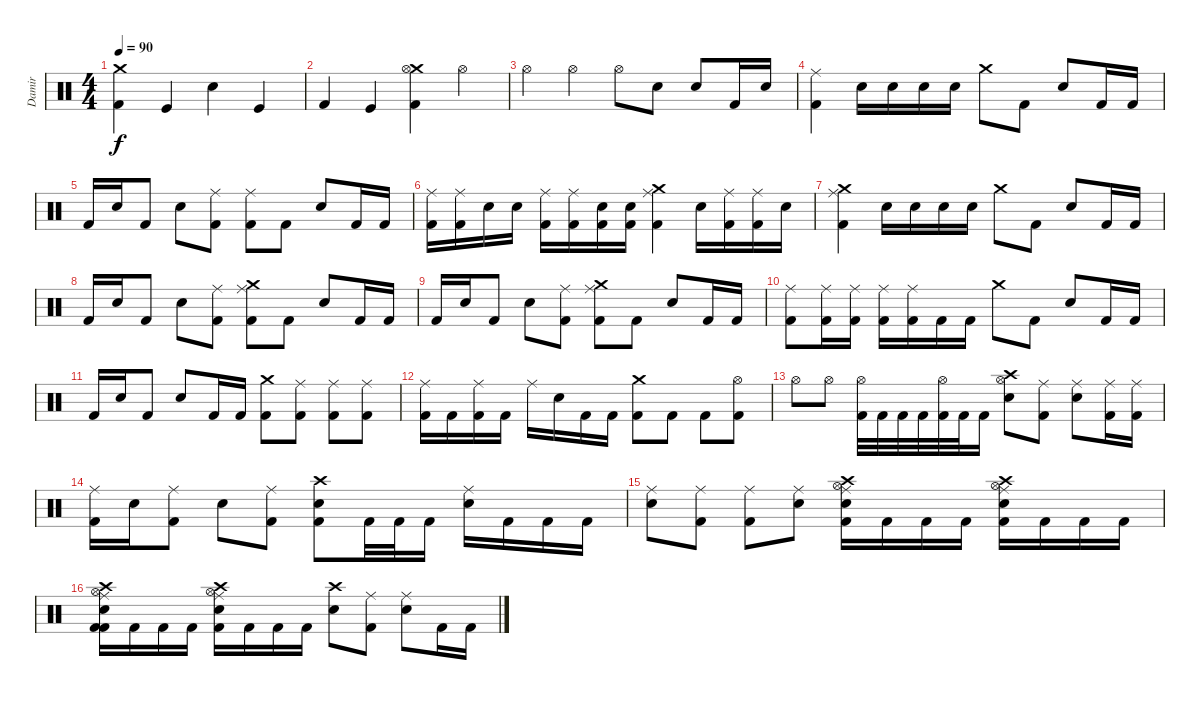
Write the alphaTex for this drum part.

\track ("Damir" "Damir") {instrument percussion}
\staff {score}
\articulation defaults
\ts (4 4)
\tempo 90
\clef neutral
\ks c
("Crash medium (hit)" "Kick (hit) 2").4{dy f} "Kick (hit)".4 "Snare (hit) 2".4 "Kick (hit)".4 |
"Kick (hit) 2".4 "Kick (hit)".4 ("Kick (hit) 2" "Crash medium (hit)" "Hi-Hat (open)").4 "Hi-Hat (open)".4 |
"Hi-Hat (open)".4 "Hi-Hat (open)".4 "Hi-Hat (open)".8 "Snare (hit) 2".8 "Snare (hit) 2".8 "Kick (hit) 2".16 "Snare (hit) 2".16 |
("Kick (hit) 2" "Ride (middle)").4 "Snare (hit) 2".16 "Snare (hit) 2".16 "Snare (hit) 2".16 "Snare (hit) 2".16 "Crash medium (hit)".8 "Kick (hit) 2".8 "Snare (hit) 2".8 "Kick (hit) 2".16 "Kick (hit) 2".16 |
"Kick (hit) 2".16 "Snare (hit) 2".16 "Kick (hit) 2".8 "Snare (hit) 2".8 ("Kick (hit) 2" "Ride (middle)").8 ("Kick (hit) 2" "Ride (middle)").8 "Kick (hit) 2".8 "Snare (hit) 2".8 "Kick (hit) 2".16 "Kick (hit) 2".16 |
("Kick (hit) 2" "Ride (middle)").16 ("Ride (middle)" "Kick (hit) 2").16 "Snare (hit) 2".16 "Snare (hit) 2".16 ("Kick (hit) 2" "Ride (middle)").16 ("Kick (hit) 2" "Ride (middle)").16 ("Snare (hit) 2" "Kick (hit) 2").16 ("Snare (hit) 2" "Kick (hit) 2").16 ("Kick (hit) 2" "Ride (middle)" "Crash medium (hit)").4 "Snare (hit) 2".16 ("Kick (hit) 2" "Ride (middle)").16 ("Kick (hit) 2" "Ride (middle)").16 "Snare (hit) 2".16 |
("Kick (hit) 2" "Ride (middle)" "Crash medium (hit)").4 "Snare (hit) 2".16 "Snare (hit) 2".16 "Snare (hit) 2".16 "Snare (hit) 2".16 "Crash medium (hit)".8 "Kick (hit) 2".8 "Snare (hit) 2".8 "Kick (hit) 2".16 "Kick (hit) 2".16 |
"Kick (hit) 2".16 "Snare (hit) 2".16 "Kick (hit) 2".8 "Snare (hit) 2".8 ("Kick (hit) 2" "Ride (middle)").8 ("Kick (hit) 2" "Ride (middle)" "Crash medium (hit)").8 "Kick (hit) 2".8 "Snare (hit) 2".8 "Kick (hit) 2".16 "Kick (hit) 2".16 |
"Kick (hit) 2".16 "Snare (hit) 2".16 "Kick (hit) 2".8 "Snare (hit) 2".8 ("Kick (hit) 2" "Ride (middle)").8 ("Kick (hit) 2" "Ride (middle)" "Crash medium (hit)").8 "Kick (hit) 2".8 "Snare (hit) 2".8 "Kick (hit) 2".16 "Kick (hit) 2".16 |
("Kick (hit) 2" "Ride (middle)").8 ("Kick (hit) 2" "Ride (middle)").16 ("Kick (hit) 2" "Ride (middle)").16 ("Kick (hit) 2" "Ride (middle)").16 ("Kick (hit) 2" "Ride (middle)").16 "Kick (hit) 2".16 "Kick (hit) 2".16 "Crash medium (hit)".8 "Kick (hit) 2".8 "Snare (hit) 2".8 "Kick (hit) 2".16 "Kick (hit) 2".16 |
"Kick (hit) 2".16 "Snare (hit) 2".16 "Kick (hit) 2".8 "Snare (hit) 2".8 "Kick (hit) 2".16 "Kick (hit) 2".16 ("Crash medium (hit)" "Kick (hit) 2").8 ("Kick (hit) 2" "Ride (middle)").8 ("Kick (hit) 2" "Ride (middle)").8 ("Kick (hit) 2" "Ride (middle)").8 |
("Kick (hit) 2" "Ride (middle)").16 "Kick (hit) 2".16 ("Kick (hit) 2" "Ride (middle)").16 "Kick (hit) 2".16 "Ride (middle)".16 "Snare (hit) 2".16 "Kick (hit) 2".16 "Kick (hit) 2".16 ("Crash medium (hit)" "Kick (hit) 2").8 "Kick (hit) 2".8 "Kick (hit) 2".8 ("Kick (hit) 2" "Hi-Hat (open)").8 |
"Hi-Hat (open)".8 "Hi-Hat (open)".8 ("Kick (hit) 2" "Hi-Hat (open)").32 "Kick (hit) 2".32 "Kick (hit) 2".32 "Kick (hit) 2".32 ("Kick (hit) 2" "Hi-Hat (open)").32 "Kick (hit) 2".32 "Kick (hit) 2".16 ("Crash high (hit)" "Snare (hit) 2" "Hi-Hat (open)").8 ("Ride (middle)" "Kick (hit) 2").8 ("Ride (middle)" "Snare (hit) 2").8 ("Ride (middle)" "Kick (hit) 2").16 ("Ride (middle)" "Kick (hit) 2").16 |
("Kick (hit) 2" "Ride (middle)").16 "Snare (hit) 2".16 ("Kick (hit) 2" "Ride (middle)").8 "Snare (hit) 2".8 ("Kick (hit) 2" "Ride (middle)").8 ("Kick (hit) 2" "Snare (hit) 2" "Crash high (hit)").8 "Kick (hit) 2".32 "Kick (hit) 2".32 "Kick (hit) 2".16 ("Snare (hit) 2" "Ride (middle)").16 "Kick (hit) 2".16 "Kick (hit) 2".16 "Kick (hit) 2".16 |
("Snare (hit) 2" "Ride (middle)").8 ("Kick (hit) 2" "Ride (middle)").8 ("Kick (hit) 2" "Ride (middle)").8 ("Snare (hit) 2" "Ride (middle)").8 ("Ride (middle)" "Hi-Hat (open)" "Crash high (hit)" "Kick (hit) 2" "Snare (hit) 2").16 "Kick (hit) 2".16 "Kick (hit) 2".16 "Kick (hit) 2".16 ("Ride (middle)" "Hi-Hat (open)" "Crash high (hit)" "Kick (hit) 2" "Snare (hit) 2").16 "Kick (hit) 2".16 "Kick (hit) 2".16 "Kick (hit) 2".16 |
("Crash high (hit)" "Hi-Hat (open)" "Kick (hit) 2" "Kick (hit) 2" "Snare (hit) 2" "Ride (middle)").16 "Kick (hit) 2".16 "Kick (hit) 2".16 "Kick (hit) 2".16 ("Ride (middle)" "Crash high (hit)" "Hi-Hat (open)" "Snare (hit) 2" "Kick (hit) 2").16 "Kick (hit) 2".16 "Kick (hit) 2".16 "Kick (hit) 2".16 ("Crash high (hit)" "Snare (hit) 2").8 ("Kick (hit) 2" "Ride (middle)").8 ("Snare (hit) 2" "Ride (middle)").8 "Kick (hit) 2".16 "Kick (hit) 2".16
